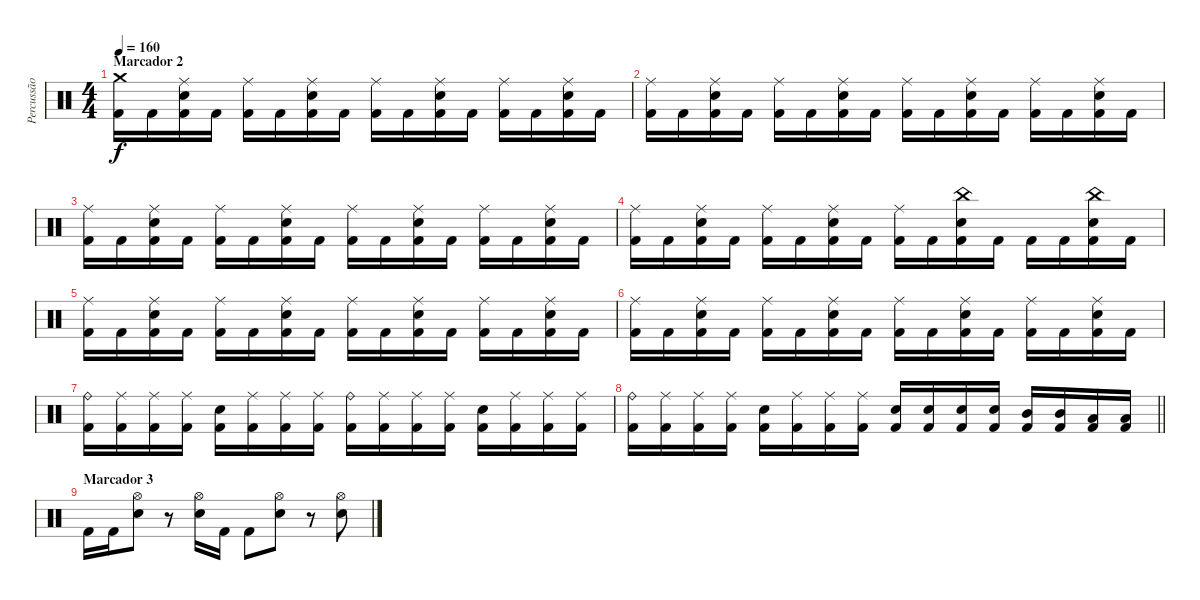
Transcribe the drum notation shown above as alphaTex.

\track ("Percussão" "Percussão") {instrument percussion}
\staff {score}
\articulation defaults
\ts (4 4)
\section ("" "Marcador 2")
\tempo 160
\clef neutral
\ks c
("Crash medium (hit)" "Kick (hit) 2").16{dy f} "Kick (hit) 2".16 ("Ride (middle)" "Electric Snare (hit)" "Kick (hit) 2").16 "Kick (hit) 2".16 ("Ride (middle)" "Kick (hit) 2").16 "Kick (hit) 2".16 ("Ride (middle)" "Electric Snare (hit)" "Kick (hit) 2").16 "Kick (hit) 2".16 ("Ride (middle)" "Kick (hit) 2").16 "Kick (hit) 2".16 ("Ride (middle)" "Electric Snare (hit)" "Kick (hit) 2").16 "Kick (hit) 2".16 ("Ride (middle)" "Kick (hit) 2").16 "Kick (hit) 2".16 ("Ride (middle)" "Electric Snare (hit)" "Kick (hit) 2").16 "Kick (hit) 2".16 |
("Ride (middle)" "Kick (hit) 2").16 "Kick (hit) 2".16 ("Ride (middle)" "Electric Snare (hit)" "Kick (hit) 2").16 "Kick (hit) 2".16 ("Ride (middle)" "Kick (hit) 2").16 "Kick (hit) 2".16 ("Ride (middle)" "Electric Snare (hit)" "Kick (hit) 2").16 "Kick (hit) 2".16 ("Ride (middle)" "Kick (hit) 2").16 "Kick (hit) 2".16 ("Ride (middle)" "Electric Snare (hit)" "Kick (hit) 2").16 "Kick (hit) 2".16 ("Ride (middle)" "Kick (hit) 2").16 "Kick (hit) 2".16 ("Ride (middle)" "Electric Snare (hit)" "Kick (hit) 2").16 "Kick (hit) 2".16 |
("Ride (middle)" "Kick (hit) 2").16 "Kick (hit) 2".16 ("Ride (middle)" "Electric Snare (hit)" "Kick (hit) 2").16 "Kick (hit) 2".16 ("Ride (middle)" "Kick (hit) 2").16 "Kick (hit) 2".16 ("Ride (middle)" "Electric Snare (hit)" "Kick (hit) 2").16 "Kick (hit) 2".16 ("Ride (middle)" "Kick (hit) 2").16 "Kick (hit) 2".16 ("Ride (middle)" "Electric Snare (hit)" "Kick (hit) 2").16 "Kick (hit) 2".16 ("Ride (middle)" "Kick (hit) 2").16 "Kick (hit) 2".16 ("Ride (middle)" "Electric Snare (hit)" "Kick (hit) 2").16 "Kick (hit) 2".16 |
("Ride (middle)" "Kick (hit) 2").16 "Kick (hit) 2".16 ("Ride (middle)" "Electric Snare (hit)" "Kick (hit) 2").16 "Kick (hit) 2".16 ("Ride (middle)" "Kick (hit) 2").16 "Kick (hit) 2".16 ("Ride (middle)" "Electric Snare (hit)" "Kick (hit) 2").16 "Kick (hit) 2".16 ("Ride (middle)" "Kick (hit) 2").16 "Kick (hit) 2".16 ("China (hit)" "Electric Snare (hit)" "Kick (hit) 2").16 "Kick (hit) 2".16 "Kick (hit) 2".16 "Kick (hit) 2".16 ("China (hit)" "Electric Snare (hit)" "Kick (hit) 2").16 "Kick (hit) 2".16 |
("Ride (middle)" "Kick (hit) 2").16 "Kick (hit) 2".16 ("Ride (middle)" "Electric Snare (hit)" "Kick (hit) 2").16 "Kick (hit) 2".16 ("Ride (middle)" "Kick (hit) 2").16 "Kick (hit) 2".16 ("Ride (middle)" "Electric Snare (hit)" "Kick (hit) 2").16 "Kick (hit) 2".16 ("Ride (middle)" "Kick (hit) 2").16 "Kick (hit) 2".16 ("Ride (middle)" "Electric Snare (hit)" "Kick (hit) 2").16 "Kick (hit) 2".16 ("Ride (middle)" "Kick (hit) 2").16 "Kick (hit) 2".16 ("Ride (middle)" "Electric Snare (hit)" "Kick (hit) 2").16 "Kick (hit) 2".16 |
("Ride (middle)" "Kick (hit) 2").16 "Kick (hit) 2".16 ("Ride (middle)" "Electric Snare (hit)" "Kick (hit) 2").16 "Kick (hit) 2".16 ("Ride (middle)" "Kick (hit) 2").16 "Kick (hit) 2".16 ("Ride (middle)" "Electric Snare (hit)" "Kick (hit) 2").16 "Kick (hit) 2".16 ("Ride (middle)" "Kick (hit) 2").16 "Kick (hit) 2".16 ("Ride (middle)" "Electric Snare (hit)" "Kick (hit) 2").16 "Kick (hit) 2".16 ("Ride (middle)" "Kick (hit) 2").16 "Kick (hit) 2".16 ("Ride (middle)" "Electric Snare (hit)" "Kick (hit) 2").16 "Kick (hit) 2".16 |
("Ride (bell)" "Kick (hit) 2").16 ("Ride (middle)" "Kick (hit) 2").16 ("Ride (middle)" "Kick (hit) 2").16 ("Ride (middle)" "Kick (hit) 2").16 ("Electric Snare (hit)" "Kick (hit) 2").16 ("Ride (middle)" "Kick (hit) 2").16 ("Ride (middle)" "Kick (hit) 2").16 ("Ride (middle)" "Kick (hit) 2").16 ("Ride (bell)" "Kick (hit) 2").16 ("Ride (middle)" "Kick (hit) 2").16 ("Ride (middle)" "Kick (hit) 2").16 ("Ride (middle)" "Kick (hit) 2").16 ("Electric Snare (hit)" "Kick (hit) 2").16 ("Ride (middle)" "Kick (hit) 2").16 ("Ride (middle)" "Kick (hit) 2").16 ("Ride (middle)" "Kick (hit) 2").16 |
\barLineRight lightlight
("Ride (bell)" "Kick (hit) 2").16 ("Ride (middle)" "Kick (hit) 2").16 ("Ride (middle)" "Kick (hit) 2").16 ("Ride (middle)" "Kick (hit) 2").16 ("Electric Snare (hit)" "Kick (hit) 2").16 ("Ride (middle)" "Kick (hit) 2").16 ("Ride (middle)" "Kick (hit) 2").16 ("Ride (middle)" "Kick (hit) 2").16 ("Electric Snare (hit)" "Kick (hit) 2").16 ("Electric Snare (hit)" "Kick (hit) 2").16 ("Electric Snare (hit)" "Kick (hit) 2").16 ("Electric Snare (hit)" "Kick (hit) 2").16 ("Mid Tom (hit)" "Kick (hit) 2").16 ("Mid Tom (hit)" "Kick (hit) 2").16 ("Low Tom (hit)" "Kick (hit) 2").16 ("Low Tom (hit)" "Kick (hit) 2").16 |
\section ("" "Marcador 3")
"Kick (hit) 2".16 "Kick (hit) 2".16 ("Hi-Hat (open)" "Electric Snare (hit)").8 r.8 ("Hi-Hat (open)" "Electric Snare (hit)").16 "Kick (hit) 2".16 "Kick (hit) 2".8 ("Hi-Hat (open)" "Electric Snare (hit)").8 r.8 ("Hi-Hat (open)" "Electric Snare (hit)").8
